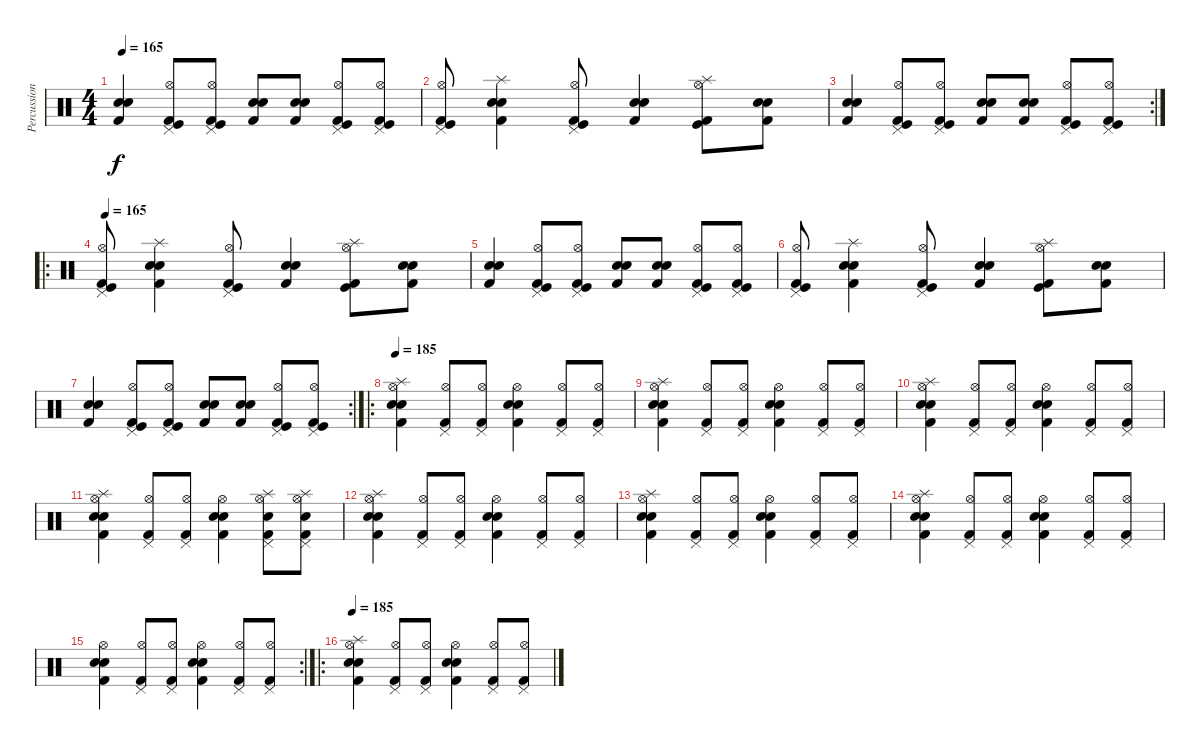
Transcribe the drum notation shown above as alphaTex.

\track ("Percussions" "Percussion") {instrument percussion}
\staff {score}
\articulation defaults
\ts (4 4)
\tempo 165
\clef neutral
\ks c
("Kick (hit) 2" "Snare (hit) 2" "Electric Snare (hit)").4{dy f} ("Kick (hit)" "Hi-Hat (open)" "Pedal Hi-Hat (hit)" "Kick (hit) 2").8 ("Kick (hit)" "Hi-Hat (open)" "Pedal Hi-Hat (hit)" "Kick (hit) 2").8 ("Kick (hit) 2" "Snare (hit) 2" "Electric Snare (hit)").8 ("Kick (hit) 2" "Snare (hit) 2" "Electric Snare (hit)").8 ("Kick (hit)" "Hi-Hat (open)" "Pedal Hi-Hat (hit)" "Kick (hit) 2").8 ("Kick (hit)" "Hi-Hat (open)" "Pedal Hi-Hat (hit)" "Kick (hit) 2").8 |
("Hi-Hat (open)" "Pedal Hi-Hat (hit)" "Kick (hit) 2" "Kick (hit)").8 ("Kick (hit) 2" "Splash (hit)" "Snare (hit) 2" "Electric Snare (hit)").4 ("Hi-Hat (open)" "Pedal Hi-Hat (hit)" "Kick (hit) 2" "Kick (hit)").8 ("Kick (hit) 2" "Snare (hit) 2" "Electric Snare (hit)").4 ("Hi-Hat (open)" "Splash (hit)" "Kick (hit) 2" "Kick (hit)").8 ("Kick (hit) 2" "Snare (hit) 2" "Electric Snare (hit)").8 |
\rc 2
("Kick (hit) 2" "Snare (hit) 2" "Electric Snare (hit)").4 ("Kick (hit)" "Hi-Hat (open)" "Pedal Hi-Hat (hit)" "Kick (hit) 2").8 ("Kick (hit)" "Hi-Hat (open)" "Pedal Hi-Hat (hit)" "Kick (hit) 2").8 ("Kick (hit) 2" "Snare (hit) 2" "Electric Snare (hit)").8 ("Kick (hit) 2" "Snare (hit) 2" "Electric Snare (hit)").8 ("Kick (hit)" "Hi-Hat (open)" "Pedal Hi-Hat (hit)" "Kick (hit) 2").8 ("Kick (hit)" "Hi-Hat (open)" "Pedal Hi-Hat (hit)" "Kick (hit) 2").8 |
\ro
\tempo 165
("Hi-Hat (open)" "Pedal Hi-Hat (hit)" "Kick (hit) 2" "Kick (hit)").8 ("Kick (hit) 2" "Splash (hit)" "Snare (hit) 2" "Electric Snare (hit)").4 ("Hi-Hat (open)" "Pedal Hi-Hat (hit)" "Kick (hit) 2" "Kick (hit)").8 ("Kick (hit) 2" "Snare (hit) 2" "Electric Snare (hit)").4 ("Hi-Hat (open)" "Splash (hit)" "Kick (hit) 2" "Kick (hit)").8 ("Kick (hit) 2" "Snare (hit) 2" "Electric Snare (hit)").8 |
("Kick (hit) 2" "Snare (hit) 2" "Electric Snare (hit)").4 ("Kick (hit)" "Hi-Hat (open)" "Pedal Hi-Hat (hit)" "Kick (hit) 2").8 ("Kick (hit)" "Hi-Hat (open)" "Pedal Hi-Hat (hit)" "Kick (hit) 2").8 ("Kick (hit) 2" "Snare (hit) 2" "Electric Snare (hit)").8 ("Kick (hit) 2" "Snare (hit) 2" "Electric Snare (hit)").8 ("Kick (hit)" "Hi-Hat (open)" "Pedal Hi-Hat (hit)" "Kick (hit) 2").8 ("Kick (hit)" "Hi-Hat (open)" "Pedal Hi-Hat (hit)" "Kick (hit) 2").8 |
("Hi-Hat (open)" "Pedal Hi-Hat (hit)" "Kick (hit) 2" "Kick (hit)").8 ("Kick (hit) 2" "Splash (hit)" "Snare (hit) 2" "Electric Snare (hit)").4 ("Hi-Hat (open)" "Pedal Hi-Hat (hit)" "Kick (hit) 2" "Kick (hit)").8 ("Kick (hit) 2" "Snare (hit) 2" "Electric Snare (hit)").4 ("Hi-Hat (open)" "Splash (hit)" "Kick (hit) 2" "Kick (hit)").8 ("Kick (hit) 2" "Snare (hit) 2" "Electric Snare (hit)").8 |
\rc 2
("Kick (hit) 2" "Snare (hit) 2" "Electric Snare (hit)").4 ("Kick (hit)" "Hi-Hat (open)" "Pedal Hi-Hat (hit)" "Kick (hit) 2").8 ("Kick (hit)" "Hi-Hat (open)" "Pedal Hi-Hat (hit)" "Kick (hit) 2").8 ("Kick (hit) 2" "Snare (hit) 2" "Electric Snare (hit)").8 ("Kick (hit) 2" "Snare (hit) 2" "Electric Snare (hit)").8 ("Kick (hit)" "Hi-Hat (open)" "Pedal Hi-Hat (hit)" "Kick (hit) 2").8 ("Kick (hit)" "Hi-Hat (open)" "Pedal Hi-Hat (hit)" "Kick (hit) 2").8 |
\ro
\tempo 185
("Hi-Hat (open)" "Splash (hit)" "Kick (hit) 2" "Snare (hit) 2" "Electric Snare (hit)").4 ("Hi-Hat (open)" "Pedal Hi-Hat (hit)" "Kick (hit) 2").8 ("Hi-Hat (open)" "Pedal Hi-Hat (hit)" "Kick (hit) 2").8 ("Electric Snare (hit)" "Snare (hit) 2" "Hi-Hat (open)" "Kick (hit) 2").4 ("Hi-Hat (open)" "Pedal Hi-Hat (hit)" "Kick (hit) 2").8 ("Hi-Hat (open)" "Pedal Hi-Hat (hit)" "Kick (hit) 2").8 |
("Hi-Hat (open)" "Splash (hit)" "Kick (hit) 2" "Snare (hit) 2" "Electric Snare (hit)").4 ("Hi-Hat (open)" "Pedal Hi-Hat (hit)" "Kick (hit) 2").8 ("Hi-Hat (open)" "Pedal Hi-Hat (hit)" "Kick (hit) 2").8 ("Electric Snare (hit)" "Snare (hit) 2" "Hi-Hat (open)" "Kick (hit) 2").4 ("Hi-Hat (open)" "Pedal Hi-Hat (hit)" "Kick (hit) 2").8 ("Hi-Hat (open)" "Pedal Hi-Hat (hit)" "Kick (hit) 2").8 |
("Hi-Hat (open)" "Splash (hit)" "Kick (hit) 2" "Snare (hit) 2" "Electric Snare (hit)").4 ("Hi-Hat (open)" "Pedal Hi-Hat (hit)" "Kick (hit) 2").8 ("Hi-Hat (open)" "Pedal Hi-Hat (hit)" "Kick (hit) 2").8 ("Electric Snare (hit)" "Snare (hit) 2" "Hi-Hat (open)" "Kick (hit) 2").4 ("Hi-Hat (open)" "Pedal Hi-Hat (hit)" "Kick (hit) 2").8 ("Hi-Hat (open)" "Pedal Hi-Hat (hit)" "Kick (hit) 2").8 |
("Hi-Hat (open)" "Splash (hit)" "Kick (hit) 2" "Snare (hit) 2" "Electric Snare (hit)").4 ("Hi-Hat (open)" "Pedal Hi-Hat (hit)" "Kick (hit) 2").8 ("Hi-Hat (open)" "Pedal Hi-Hat (hit)" "Kick (hit) 2").8 ("Electric Snare (hit)" "Snare (hit) 2" "Hi-Hat (open)" "Kick (hit) 2").4 ("Hi-Hat (open)" "Splash (hit)" "Pedal Hi-Hat (hit)" "Kick (hit) 2" "Electric Snare (hit)").8 ("Splash (hit)" "Hi-Hat (open)" "Pedal Hi-Hat (hit)" "Kick (hit) 2" "Electric Snare (hit)").8 |
("Hi-Hat (open)" "Splash (hit)" "Kick (hit) 2" "Snare (hit) 2" "Electric Snare (hit)").4 ("Hi-Hat (open)" "Pedal Hi-Hat (hit)" "Kick (hit) 2").8 ("Hi-Hat (open)" "Pedal Hi-Hat (hit)" "Kick (hit) 2").8 ("Electric Snare (hit)" "Snare (hit) 2" "Hi-Hat (open)" "Kick (hit) 2").4 ("Hi-Hat (open)" "Pedal Hi-Hat (hit)" "Kick (hit) 2").8 ("Hi-Hat (open)" "Pedal Hi-Hat (hit)" "Kick (hit) 2").8 |
("Hi-Hat (open)" "Splash (hit)" "Kick (hit) 2" "Snare (hit) 2" "Electric Snare (hit)").4 ("Hi-Hat (open)" "Pedal Hi-Hat (hit)" "Kick (hit) 2").8 ("Hi-Hat (open)" "Pedal Hi-Hat (hit)" "Kick (hit) 2").8 ("Electric Snare (hit)" "Snare (hit) 2" "Hi-Hat (open)" "Kick (hit) 2").4 ("Hi-Hat (open)" "Pedal Hi-Hat (hit)" "Kick (hit) 2").8 ("Hi-Hat (open)" "Pedal Hi-Hat (hit)" "Kick (hit) 2").8 |
("Hi-Hat (open)" "Splash (hit)" "Kick (hit) 2" "Snare (hit) 2" "Electric Snare (hit)").4 ("Hi-Hat (open)" "Pedal Hi-Hat (hit)" "Kick (hit) 2").8 ("Hi-Hat (open)" "Pedal Hi-Hat (hit)" "Kick (hit) 2").8 ("Electric Snare (hit)" "Snare (hit) 2" "Hi-Hat (open)" "Kick (hit) 2").4 ("Hi-Hat (open)" "Pedal Hi-Hat (hit)" "Kick (hit) 2").8 ("Hi-Hat (open)" "Pedal Hi-Hat (hit)" "Kick (hit) 2").8 |
\rc 2
("Hi-Hat (open)" "Kick (hit) 2" "Snare (hit) 2" "Electric Snare (hit)").4 ("Hi-Hat (open)" "Pedal Hi-Hat (hit)" "Kick (hit) 2").8 ("Hi-Hat (open)" "Pedal Hi-Hat (hit)" "Kick (hit) 2").8 ("Electric Snare (hit)" "Snare (hit) 2" "Hi-Hat (open)" "Kick (hit) 2").4 ("Hi-Hat (open)" "Pedal Hi-Hat (hit)" "Kick (hit) 2").8 ("Hi-Hat (open)" "Pedal Hi-Hat (hit)" "Kick (hit) 2").8 |
\ro
\tempo 185
("Hi-Hat (open)" "Splash (hit)" "Kick (hit) 2" "Snare (hit) 2" "Electric Snare (hit)").4 ("Hi-Hat (open)" "Pedal Hi-Hat (hit)" "Kick (hit) 2").8 ("Hi-Hat (open)" "Pedal Hi-Hat (hit)" "Kick (hit) 2").8 ("Electric Snare (hit)" "Snare (hit) 2" "Hi-Hat (open)" "Kick (hit) 2").4 ("Hi-Hat (open)" "Pedal Hi-Hat (hit)" "Kick (hit) 2").8 ("Hi-Hat (open)" "Pedal Hi-Hat (hit)" "Kick (hit) 2").8
